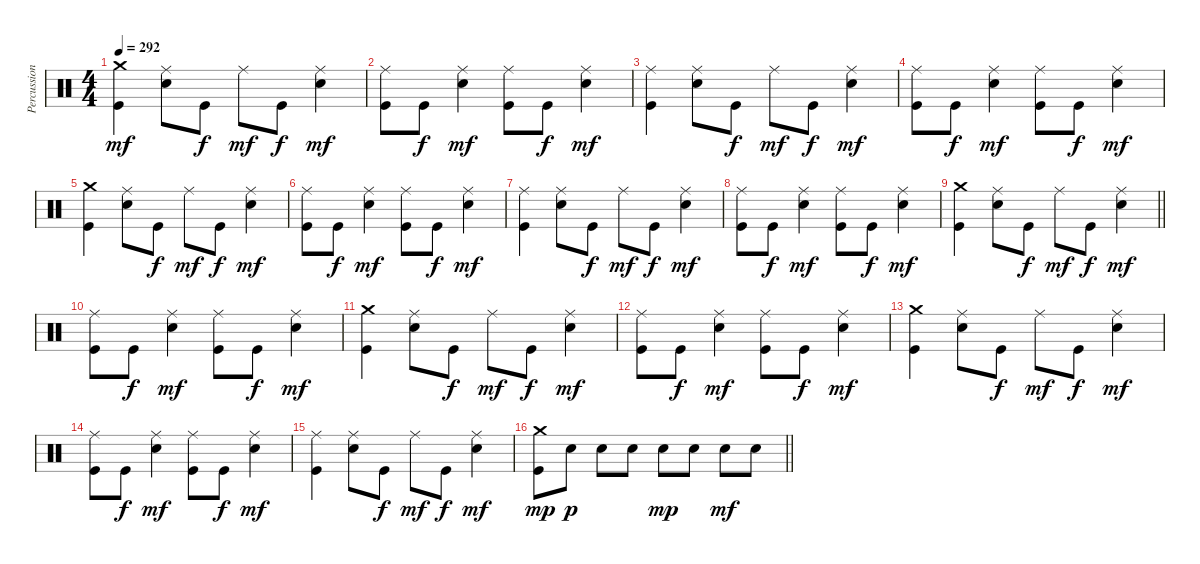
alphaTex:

\track ("Percussion" "Percussion") {instrument percussion}
\staff {score}
\articulation defaults
\ts (4 4)
\tempo 292
\clef neutral
\ks c
("Crash medium (hit)" "Kick (hit)").4{dy mf} ("Ride (middle)" "Electric Snare (hit)").8 "Kick (hit)".8{dy f} "Ride (middle)".8{dy mf} "Kick (hit)".8{dy f} ("Ride (middle)" "Electric Snare (hit)").4{dy mf} |
("Ride (middle)" "Kick (hit)").8 "Kick (hit)".8{dy f} ("Ride (middle)" "Electric Snare (hit)").4{dy mf} ("Ride (middle)" "Kick (hit)").8 "Kick (hit)".8{dy f} ("Ride (middle)" "Electric Snare (hit)").4{dy mf} |
("Ride (middle)" "Kick (hit)").4 ("Ride (middle)" "Electric Snare (hit)").8 "Kick (hit)".8{dy f} "Ride (middle)".8{dy mf} "Kick (hit)".8{dy f} ("Ride (middle)" "Electric Snare (hit)").4{dy mf} |
("Ride (middle)" "Kick (hit)").8 "Kick (hit)".8{dy f} ("Ride (middle)" "Electric Snare (hit)").4{dy mf} ("Ride (middle)" "Kick (hit)").8 "Kick (hit)".8{dy f} ("Ride (middle)" "Electric Snare (hit)").4{dy mf} |
("Crash medium (hit)" "Kick (hit)").4 ("Ride (middle)" "Electric Snare (hit)").8 "Kick (hit)".8{dy f} "Ride (middle)".8{dy mf} "Kick (hit)".8{dy f} ("Ride (middle)" "Electric Snare (hit)").4{dy mf} |
("Ride (middle)" "Kick (hit)").8 "Kick (hit)".8{dy f} ("Ride (middle)" "Electric Snare (hit)").4{dy mf} ("Ride (middle)" "Kick (hit)").8 "Kick (hit)".8{dy f} ("Ride (middle)" "Electric Snare (hit)").4{dy mf} |
("Ride (middle)" "Kick (hit)").4 ("Ride (middle)" "Electric Snare (hit)").8 "Kick (hit)".8{dy f} "Ride (middle)".8{dy mf} "Kick (hit)".8{dy f} ("Ride (middle)" "Electric Snare (hit)").4{dy mf} |
("Ride (middle)" "Kick (hit)").8 "Kick (hit)".8{dy f} ("Ride (middle)" "Electric Snare (hit)").4{dy mf} ("Ride (middle)" "Kick (hit)").8 "Kick (hit)".8{dy f} ("Ride (middle)" "Electric Snare (hit)").4{dy mf} |
\barLineRight lightlight
("Crash medium (hit)" "Kick (hit)").4 ("Ride (middle)" "Electric Snare (hit)").8 "Kick (hit)".8{dy f} "Ride (middle)".8{dy mf} "Kick (hit)".8{dy f} ("Ride (middle)" "Electric Snare (hit)").4{dy mf} |
\section ("" "")
("Ride (middle)" "Kick (hit)").8 "Kick (hit)".8{dy f} ("Ride (middle)" "Electric Snare (hit)").4{dy mf} ("Ride (middle)" "Kick (hit)").8 "Kick (hit)".8{dy f} ("Ride (middle)" "Electric Snare (hit)").4{dy mf} |
("Crash medium (hit)" "Kick (hit)").4 ("Ride (middle)" "Electric Snare (hit)").8 "Kick (hit)".8{dy f} "Ride (middle)".8{dy mf} "Kick (hit)".8{dy f} ("Ride (middle)" "Electric Snare (hit)").4{dy mf} |
("Ride (middle)" "Kick (hit)").8 "Kick (hit)".8{dy f} ("Ride (middle)" "Electric Snare (hit)").4{dy mf} ("Ride (middle)" "Kick (hit)").8 "Kick (hit)".8{dy f} ("Ride (middle)" "Electric Snare (hit)").4{dy mf} |
("Crash medium (hit)" "Kick (hit)").4 ("Ride (middle)" "Electric Snare (hit)").8 "Kick (hit)".8{dy f} "Ride (middle)".8{dy mf} "Kick (hit)".8{dy f} ("Ride (middle)" "Electric Snare (hit)").4{dy mf} |
("Ride (middle)" "Kick (hit)").8 "Kick (hit)".8{dy f} ("Ride (middle)" "Electric Snare (hit)").4{dy mf} ("Ride (middle)" "Kick (hit)").8 "Kick (hit)".8{dy f} ("Ride (middle)" "Electric Snare (hit)").4{dy mf} |
("Ride (middle)" "Kick (hit)").4 ("Ride (middle)" "Electric Snare (hit)").8 "Kick (hit)".8{dy f} "Ride (middle)".8{dy mf} "Kick (hit)".8{dy f} ("Ride (middle)" "Electric Snare (hit)").4{dy mf} |
\barLineRight lightlight
("Crash medium (hit)" "Kick (hit)").8{dy mp} "Electric Snare (hit)".8{dy p} "Electric Snare (hit)".8 "Electric Snare (hit)".8 "Electric Snare (hit)".8{dy mp} "Electric Snare (hit)".8 "Electric Snare (hit)".8{dy mf} "Electric Snare (hit)".8
